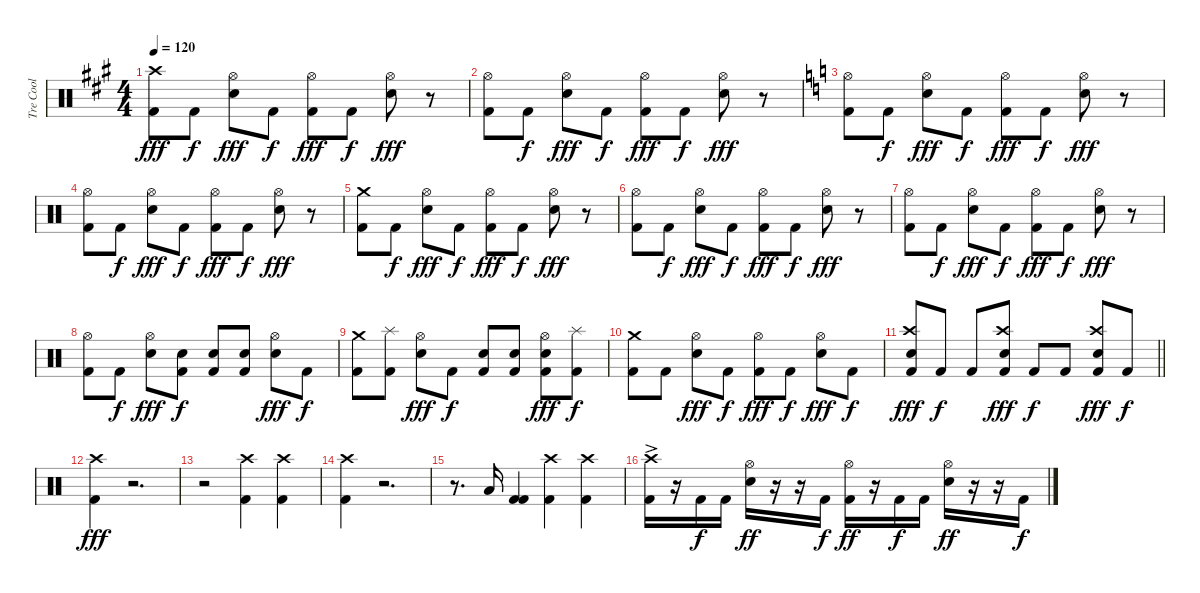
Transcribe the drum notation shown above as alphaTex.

\track ("Tre Cool" "Tre Cool") {instrument percussion}
\staff {score}
\articulation defaults
\ts (4 4)
\tempo 120
\clef neutral
\ks a
("Kick (hit) 2" "Crash high (hit)").8{dy fff} "Kick (hit) 2".8{dy f} ("Electric Snare (hit)" "Hi-Hat (open)").8{dy fff} "Kick (hit) 2".8{dy f} ("Kick (hit) 2" "Hi-Hat (open)").8{dy fff} "Kick (hit) 2".8{dy f} ("Electric Snare (hit)" "Hi-Hat (open)").8{dy fff} r.8 |
("Kick (hit) 2" "Hi-Hat (open)").8 "Kick (hit) 2".8{dy f} ("Electric Snare (hit)" "Hi-Hat (open)").8{dy fff} "Kick (hit) 2".8{dy f} ("Kick (hit) 2" "Hi-Hat (open)").8{dy fff} "Kick (hit) 2".8{dy f} ("Electric Snare (hit)" "Hi-Hat (open)").8{dy fff} r.8 |
\ks c
("Kick (hit) 2" "Hi-Hat (open)").8 "Kick (hit) 2".8{dy f} ("Electric Snare (hit)" "Hi-Hat (open)").8{dy fff} "Kick (hit) 2".8{dy f} ("Kick (hit) 2" "Hi-Hat (open)").8{dy fff} "Kick (hit) 2".8{dy f} ("Electric Snare (hit)" "Hi-Hat (open)").8{dy fff} r.8 |
("Kick (hit) 2" "Hi-Hat (open)").8 "Kick (hit) 2".8{dy f} ("Electric Snare (hit)" "Hi-Hat (open)").8{dy fff} "Kick (hit) 2".8{dy f} ("Kick (hit) 2" "Hi-Hat (open)").8{dy fff} "Kick (hit) 2".8{dy f} ("Electric Snare (hit)" "Hi-Hat (open)").8{dy fff} r.8 |
("Kick (hit) 2" "Crash medium (hit)").8 "Kick (hit) 2".8{dy f} ("Electric Snare (hit)" "Hi-Hat (open)").8{dy fff} "Kick (hit) 2".8{dy f} ("Kick (hit) 2" "Hi-Hat (open)").8{dy fff} "Kick (hit) 2".8{dy f} ("Electric Snare (hit)" "Hi-Hat (open)").8{dy fff} r.8 |
("Kick (hit) 2" "Hi-Hat (open)").8 "Kick (hit) 2".8{dy f} ("Electric Snare (hit)" "Hi-Hat (open)").8{dy fff} "Kick (hit) 2".8{dy f} ("Kick (hit) 2" "Hi-Hat (open)").8{dy fff} "Kick (hit) 2".8{dy f} ("Electric Snare (hit)" "Hi-Hat (open)").8{dy fff} r.8 |
("Kick (hit) 2" "Hi-Hat (open)").8 "Kick (hit) 2".8{dy f} ("Electric Snare (hit)" "Hi-Hat (open)").8{dy fff} "Kick (hit) 2".8{dy f} ("Kick (hit) 2" "Hi-Hat (open)").8{dy fff} "Kick (hit) 2".8{dy f} ("Electric Snare (hit)" "Hi-Hat (open)").8{dy fff} r.8 |
("Kick (hit) 2" "Hi-Hat (open)").8 "Kick (hit) 2".8{dy f} ("Electric Snare (hit)" "Hi-Hat (open)").8{dy fff} ("Kick (hit) 2" "Snare (hit) 2").8{dy f} ("Kick (hit) 2" "Snare (hit) 2").8 ("Kick (hit) 2" "Snare (hit) 2").8 ("Snare (hit) 2" "Hi-Hat (open)").8{dy fff} "Kick (hit) 2".8{dy f} |
("Kick (hit) 2" "Crash medium (hit)").8 ("Kick (hit) 2" "Splash (hit)").8 ("Electric Snare (hit)" "Hi-Hat (open)").8{dy fff} "Kick (hit) 2".8{dy f} ("Kick (hit) 2" "Snare (hit) 2").8 ("Kick (hit) 2" "Snare (hit) 2").8 ("Kick (hit) 2" "Snare (hit) 2" "Hi-Hat (open)").8{dy fff} ("Kick (hit) 2" "Splash (hit)").8{dy f} |
("Kick (hit) 2" "Crash medium (hit)").8 "Kick (hit) 2".8 ("Electric Snare (hit)" "Hi-Hat (open)").8{dy fff} "Kick (hit) 2".8{dy f} ("Kick (hit) 2" "Hi-Hat (open)").8{dy fff} "Kick (hit) 2".8{dy f} ("Electric Snare (hit)" "Hi-Hat (open)").8{dy fff} "Kick (hit) 2".8{dy f} |
\barLineRight lightlight
("Kick (hit) 2" "Snare (hit) 2" "Crash high (hit)").8{dy fff} "Kick (hit) 2".8{dy f} "Kick (hit) 2".8 ("Kick (hit) 2" "Snare (hit) 2" "Crash high (hit)").8{dy fff} "Kick (hit) 2".8{dy f} "Kick (hit) 2".8 ("Kick (hit) 2" "Snare (hit) 2" "Crash high (hit)").8{dy fff} "Kick (hit) 2".8{dy f} |
("Kick (hit) 2" "Crash high (hit)").4{dy fff} r.2{d} |
r.2 ("Kick (hit) 2" "Crash high (hit)").4 ("Kick (hit) 2" "Crash high (hit)").4 |
("Kick (hit) 2" "Crash high (hit)").4 r.2{d} |
r.8{d} "Low Tom (hit)".16 ("Kick (hit) 2" "Kick (hit) 2").4 ("Kick (hit) 2" "Crash high (hit)").4 ("Kick (hit) 2" "Crash high (hit)").4 |
("Crash high (hit)"{ac} "Kick (hit) 2"{ac}).16 r.16 "Kick (hit) 2".16{dy f} "Kick (hit) 2".16 ("Hi-Hat (open)" "Electric Snare (hit)").16{dy ff} r.16 r.16 "Kick (hit) 2".16{dy f} ("Hi-Hat (open)" "Kick (hit) 2").16{dy ff} r.16 "Kick (hit) 2".16{dy f} "Kick (hit) 2".16 ("Hi-Hat (open)" "Electric Snare (hit)").16{dy ff} r.16 r.16 "Kick (hit) 2".16{dy f}
